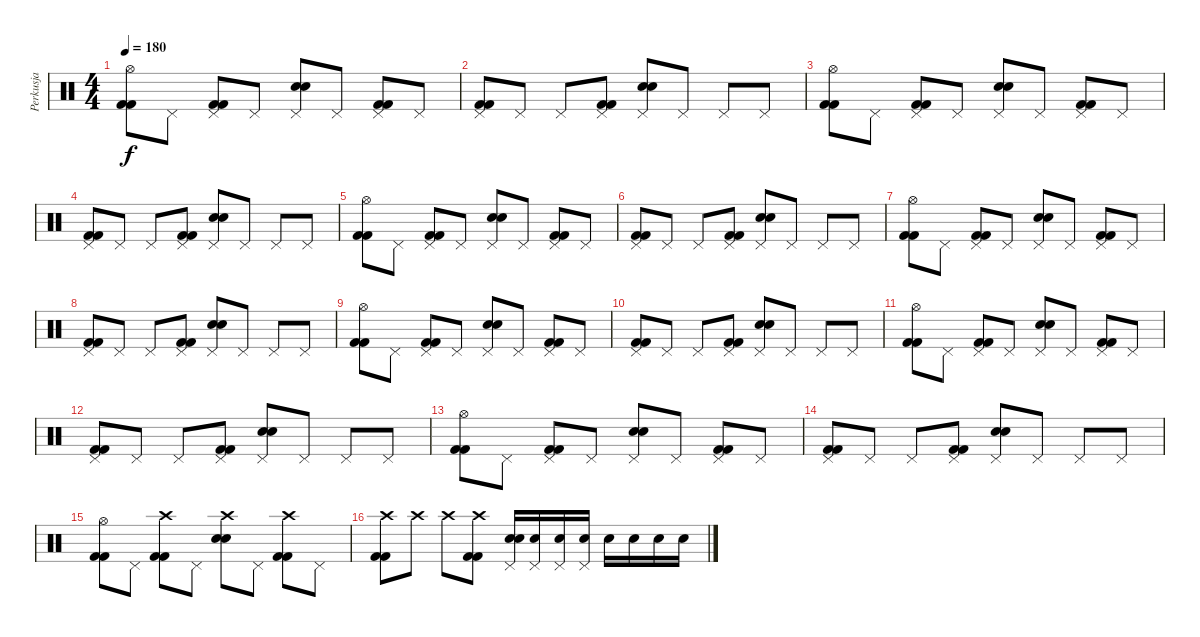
\track ("Perkusja" "Perkusja") {instrument percussion}
\staff {score}
\articulation defaults
\ts (4 4)
\tempo 180
\clef neutral
\ks c
("Hi-Hat (open)" "Kick (hit) 2" "Kick (hit) 2").8{dy f} "Pedal Hi-Hat (hit)".8 ("Pedal Hi-Hat (hit)" "Kick (hit) 2" "Kick (hit) 2").8 "Pedal Hi-Hat (hit)".8 ("Pedal Hi-Hat (hit)" "Snare (hit) 2" "Snare (hit) 2").8 "Pedal Hi-Hat (hit)".8 ("Pedal Hi-Hat (hit)" "Kick (hit) 2" "Kick (hit) 2").8 "Pedal Hi-Hat (hit)".8 |
("Pedal Hi-Hat (hit)" "Kick (hit) 2" "Kick (hit) 2").8 "Pedal Hi-Hat (hit)".8 "Pedal Hi-Hat (hit)".8 ("Pedal Hi-Hat (hit)" "Kick (hit) 2" "Kick (hit) 2").8 ("Pedal Hi-Hat (hit)" "Snare (hit) 2" "Snare (hit) 2").8 "Pedal Hi-Hat (hit)".8 "Pedal Hi-Hat (hit)".8 "Pedal Hi-Hat (hit)".8 |
("Hi-Hat (open)" "Kick (hit) 2" "Kick (hit) 2").8 "Pedal Hi-Hat (hit)".8 ("Pedal Hi-Hat (hit)" "Kick (hit) 2" "Kick (hit) 2").8 "Pedal Hi-Hat (hit)".8 ("Pedal Hi-Hat (hit)" "Snare (hit) 2" "Snare (hit) 2").8 "Pedal Hi-Hat (hit)".8 ("Pedal Hi-Hat (hit)" "Kick (hit) 2" "Kick (hit) 2").8 "Pedal Hi-Hat (hit)".8 |
("Pedal Hi-Hat (hit)" "Kick (hit) 2" "Kick (hit) 2").8 "Pedal Hi-Hat (hit)".8 "Pedal Hi-Hat (hit)".8 ("Pedal Hi-Hat (hit)" "Kick (hit) 2" "Kick (hit) 2").8 ("Pedal Hi-Hat (hit)" "Snare (hit) 2" "Snare (hit) 2").8 "Pedal Hi-Hat (hit)".8 "Pedal Hi-Hat (hit)".8 "Pedal Hi-Hat (hit)".8 |
("Hi-Hat (open)" "Kick (hit) 2" "Kick (hit) 2").8 "Pedal Hi-Hat (hit)".8 ("Pedal Hi-Hat (hit)" "Kick (hit) 2" "Kick (hit) 2").8 "Pedal Hi-Hat (hit)".8 ("Pedal Hi-Hat (hit)" "Snare (hit) 2" "Snare (hit) 2").8 "Pedal Hi-Hat (hit)".8 ("Pedal Hi-Hat (hit)" "Kick (hit) 2" "Kick (hit) 2").8 "Pedal Hi-Hat (hit)".8 |
("Pedal Hi-Hat (hit)" "Kick (hit) 2" "Kick (hit) 2").8 "Pedal Hi-Hat (hit)".8 "Pedal Hi-Hat (hit)".8 ("Pedal Hi-Hat (hit)" "Kick (hit) 2" "Kick (hit) 2").8 ("Pedal Hi-Hat (hit)" "Snare (hit) 2" "Snare (hit) 2").8 "Pedal Hi-Hat (hit)".8 "Pedal Hi-Hat (hit)".8 "Pedal Hi-Hat (hit)".8 |
("Hi-Hat (open)" "Kick (hit) 2" "Kick (hit) 2").8 "Pedal Hi-Hat (hit)".8 ("Pedal Hi-Hat (hit)" "Kick (hit) 2" "Kick (hit) 2").8 "Pedal Hi-Hat (hit)".8 ("Pedal Hi-Hat (hit)" "Snare (hit) 2" "Snare (hit) 2").8 "Pedal Hi-Hat (hit)".8 ("Pedal Hi-Hat (hit)" "Kick (hit) 2" "Kick (hit) 2").8 "Pedal Hi-Hat (hit)".8 |
("Pedal Hi-Hat (hit)" "Kick (hit) 2" "Kick (hit) 2").8 "Pedal Hi-Hat (hit)".8 "Pedal Hi-Hat (hit)".8 ("Pedal Hi-Hat (hit)" "Kick (hit) 2" "Kick (hit) 2").8 ("Pedal Hi-Hat (hit)" "Snare (hit) 2" "Snare (hit) 2").8 "Pedal Hi-Hat (hit)".8 "Pedal Hi-Hat (hit)".8 "Pedal Hi-Hat (hit)".8 |
("Hi-Hat (open)" "Kick (hit) 2" "Kick (hit) 2").8 "Pedal Hi-Hat (hit)".8 ("Pedal Hi-Hat (hit)" "Kick (hit) 2" "Kick (hit) 2").8 "Pedal Hi-Hat (hit)".8 ("Pedal Hi-Hat (hit)" "Snare (hit) 2" "Snare (hit) 2").8 "Pedal Hi-Hat (hit)".8 ("Pedal Hi-Hat (hit)" "Kick (hit) 2" "Kick (hit) 2").8 "Pedal Hi-Hat (hit)".8 |
("Pedal Hi-Hat (hit)" "Kick (hit) 2" "Kick (hit) 2").8 "Pedal Hi-Hat (hit)".8 "Pedal Hi-Hat (hit)".8 ("Pedal Hi-Hat (hit)" "Kick (hit) 2" "Kick (hit) 2").8 ("Pedal Hi-Hat (hit)" "Snare (hit) 2" "Snare (hit) 2").8 "Pedal Hi-Hat (hit)".8 "Pedal Hi-Hat (hit)".8 "Pedal Hi-Hat (hit)".8 |
("Hi-Hat (open)" "Kick (hit) 2" "Kick (hit) 2").8 "Pedal Hi-Hat (hit)".8 ("Pedal Hi-Hat (hit)" "Kick (hit) 2" "Kick (hit) 2").8 "Pedal Hi-Hat (hit)".8 ("Pedal Hi-Hat (hit)" "Snare (hit) 2" "Snare (hit) 2").8 "Pedal Hi-Hat (hit)".8 ("Pedal Hi-Hat (hit)" "Kick (hit) 2" "Kick (hit) 2").8 "Pedal Hi-Hat (hit)".8 |
("Pedal Hi-Hat (hit)" "Kick (hit) 2" "Kick (hit) 2").8 "Pedal Hi-Hat (hit)".8 "Pedal Hi-Hat (hit)".8 ("Pedal Hi-Hat (hit)" "Kick (hit) 2" "Kick (hit) 2").8 ("Pedal Hi-Hat (hit)" "Snare (hit) 2" "Snare (hit) 2").8 "Pedal Hi-Hat (hit)".8 "Pedal Hi-Hat (hit)".8 "Pedal Hi-Hat (hit)".8 |
("Hi-Hat (open)" "Kick (hit) 2" "Kick (hit) 2").8 "Pedal Hi-Hat (hit)".8 ("Pedal Hi-Hat (hit)" "Kick (hit) 2" "Kick (hit) 2").8 "Pedal Hi-Hat (hit)".8 ("Pedal Hi-Hat (hit)" "Snare (hit) 2" "Snare (hit) 2").8 "Pedal Hi-Hat (hit)".8 ("Pedal Hi-Hat (hit)" "Kick (hit) 2" "Kick (hit) 2").8 "Pedal Hi-Hat (hit)".8 |
("Pedal Hi-Hat (hit)" "Kick (hit) 2" "Kick (hit) 2").8 "Pedal Hi-Hat (hit)".8 "Pedal Hi-Hat (hit)".8 ("Pedal Hi-Hat (hit)" "Kick (hit) 2" "Kick (hit) 2").8 ("Pedal Hi-Hat (hit)" "Snare (hit) 2" "Snare (hit) 2").8 "Pedal Hi-Hat (hit)".8 "Pedal Hi-Hat (hit)".8 "Pedal Hi-Hat (hit)".8 |
("Hi-Hat (open)" "Kick (hit) 2" "Kick (hit) 2").8 "Pedal Hi-Hat (hit)".8 ("Crash high (hit)" "Kick (hit) 2" "Kick (hit) 2").8 "Pedal Hi-Hat (hit)".8 ("Crash high (hit)" "Snare (hit) 2" "Snare (hit) 2").8 "Pedal Hi-Hat (hit)".8 ("Crash high (hit)" "Kick (hit) 2" "Kick (hit) 2").8 "Pedal Hi-Hat (hit)".8 |
("Crash high (hit)" "Kick (hit) 2" "Kick (hit) 2").8 "Crash high (hit)".8 "Crash high (hit)".8 ("Crash high (hit)" "Kick (hit) 2" "Kick (hit) 2").8 ("Pedal Hi-Hat (hit)" "Snare (hit) 2" "Snare (hit) 2").16 ("Pedal Hi-Hat (hit)" "Snare (hit) 2").16 ("Pedal Hi-Hat (hit)" "Snare (hit) 2").16 ("Pedal Hi-Hat (hit)" "Snare (hit) 2").16 "Snare (hit) 2".16 "Snare (hit) 2".16 "Snare (hit) 2".16 "Snare (hit) 2".16
